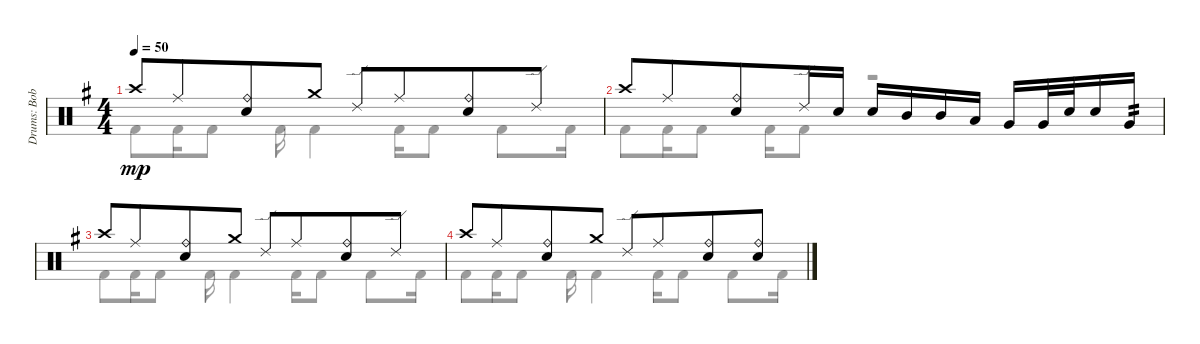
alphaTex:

\track ("Drums: Bobby" "Drums: Bob") {instrument percussion}
\staff {score}
\articulation defaults
\voice
\ts (4 4)
\tempo 50
\clef neutral
\ks g "Crash high (hit)".8{dy mp volume 0} "Ride (middle)".8{beam merge}
("Ride (bell)" "Snare (hit) 2").8 "Crash medium (hit)".8 "Ride (edge) 2".8 "Ride (middle)".8{beam merge} ("Ride (bell)" "Snare (hit) 2").8 "Ride (edge) 2".8 |
"Crash high (hit)".8 "Ride (middle)".8{beam merge} ("Ride (bell)" "Snare (hit) 2").8 "Ride (edge) 2".16 "Electric Snare (hit)".16 "Electric Snare (hit)".16{beam merge} "Mid Tom (hit)".16 "Mid Tom (hit)".16 "Low Tom (hit)".16 "Very Low Tom (hit)".16 "Very Low Tom (hit)".32 "Electric Snare (hit)".32 "Electric Snare (hit)".16 "Very Low Tom (hit)".16{tp 2} |
"Crash high (hit)".8 "Ride (middle)".8{beam merge} ("Ride (bell)" "Snare (hit) 2").8 "Crash medium (hit)".8 "Ride (edge) 2".8 "Ride (middle)".8{beam merge} ("Ride (bell)" "Snare (hit) 2").8 "Ride (edge) 2".8 |
"Crash high (hit)".8 "Ride (middle)".8{beam merge} ("Ride (bell)" "Snare (hit) 2").8 "Crash medium (hit)".8 "Ride (edge) 2".8 "Ride (middle)".8{beam merge} ("Ride (bell)" "Snare (hit) 2").8 ("Ride (bell)" "Snare (hit) 2").8
\voice
\clef neutral
\ottava regular
\simile none
\ks g "Kick (hit) 2".8{dy mp} "Kick (hit) 2".16 "Kick (hit) 2".8 "Kick (hit) 2".16 "Kick (hit) 2".4 "Kick (hit) 2".16 "Kick (hit) 2".8 "Kick (hit) 2".8 "Kick (hit) 2".16
|
"Kick (hit) 2".8 "Kick (hit) 2".16 "Kick (hit) 2".8 "Kick (hit) 2".16 "Kick (hit) 2".8 r.2 |
"Kick (hit) 2".8 "Kick (hit) 2".16 "Kick (hit) 2".8 "Kick (hit) 2".16 "Kick (hit) 2".4 "Kick (hit) 2".16 "Kick (hit) 2".8 "Kick (hit) 2".8 "Kick (hit) 2".16 |
"Kick (hit) 2".8 "Kick (hit) 2".16 "Kick (hit) 2".8 "Kick (hit) 2".16 "Kick (hit) 2".4 "Kick (hit) 2".16 "Kick (hit) 2".8 "Kick (hit) 2".8 "Kick (hit) 2".16
